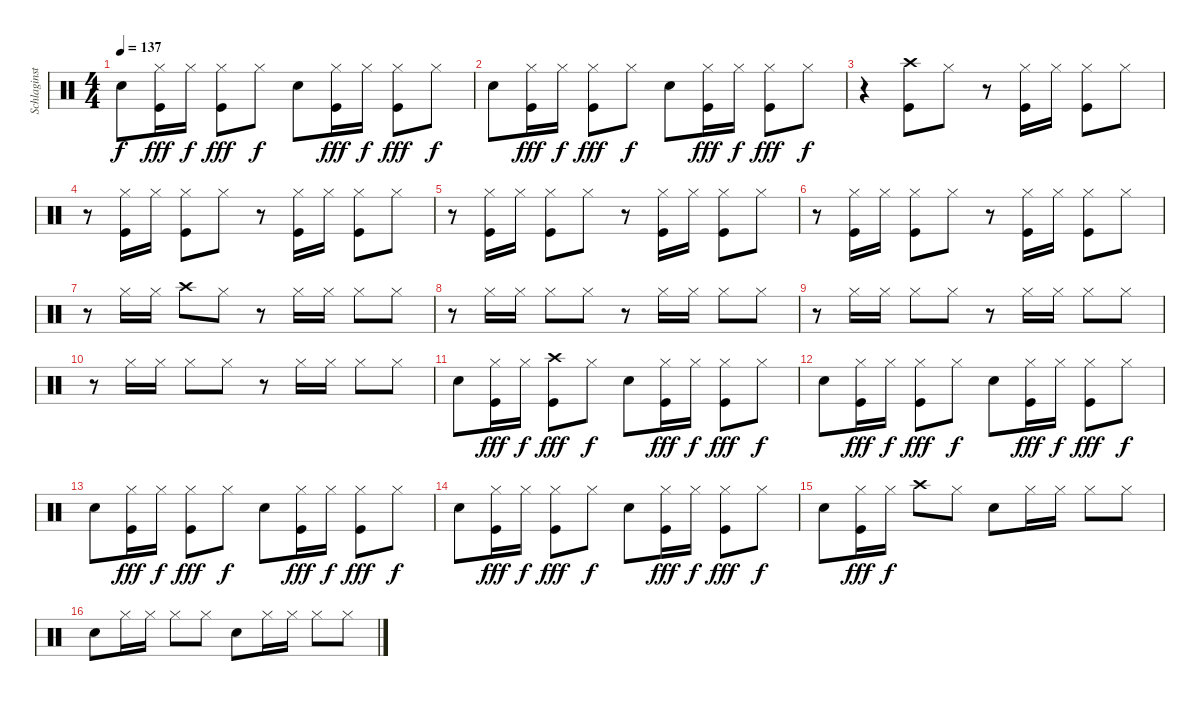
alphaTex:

\track ("Schlaginstrument" "Schlaginst") {instrument percussion}
\staff {score}
\articulation defaults
\ts (4 4)
\tempo 137
\clef neutral
\ks c "Hand Clap (hit)".8{dy f}
("Hi-Hat (closed)" "Kick (hit)").16{dy fff} "Hi-Hat (closed)".16{dy f} ("Hi-Hat (closed)" "Kick (hit)").8{dy fff} "Hi-Hat (closed)".8{dy f} "Hand Clap (hit)".8 ("Hi-Hat (closed)" "Kick (hit)").16{dy fff} "Hi-Hat (closed)".16{dy f} ("Hi-Hat (closed)" "Kick (hit)").8{dy fff} "Hi-Hat (closed)".8{dy f} |
"Hand Clap (hit)".8 ("Hi-Hat (closed)" "Kick (hit)").16{dy fff} "Hi-Hat (closed)".16{dy f} ("Hi-Hat (closed)" "Kick (hit)").8{dy fff} "Hi-Hat (closed)".8{dy f} "Hand Clap (hit)".8 ("Hi-Hat (closed)" "Kick (hit)").16{dy fff} "Hi-Hat (closed)".16{dy f} ("Hi-Hat (closed)" "Kick (hit)").8{dy fff} "Hi-Hat (closed)".8{dy f} |
r.4 ("Crash high (hit)" "Kick (hit)").8 "Hi-Hat (closed)".8 r.8 ("Hi-Hat (closed)" "Kick (hit)").16 "Hi-Hat (closed)".16 ("Hi-Hat (closed)" "Kick (hit)").8 "Hi-Hat (closed)".8 |
r.8 ("Hi-Hat (closed)" "Kick (hit)").16 "Hi-Hat (closed)".16 ("Hi-Hat (closed)" "Kick (hit)").8 "Hi-Hat (closed)".8 r.8 ("Hi-Hat (closed)" "Kick (hit)").16 "Hi-Hat (closed)".16 ("Hi-Hat (closed)" "Kick (hit)").8 "Hi-Hat (closed)".8 |
r.8 ("Hi-Hat (closed)" "Kick (hit)").16 "Hi-Hat (closed)".16 ("Hi-Hat (closed)" "Kick (hit)").8 "Hi-Hat (closed)".8 r.8 ("Hi-Hat (closed)" "Kick (hit)").16 "Hi-Hat (closed)".16 ("Hi-Hat (closed)" "Kick (hit)").8 "Hi-Hat (closed)".8 |
r.8 ("Hi-Hat (closed)" "Kick (hit)").16 "Hi-Hat (closed)".16 ("Hi-Hat (closed)" "Kick (hit)").8 "Hi-Hat (closed)".8 r.8 ("Hi-Hat (closed)" "Kick (hit)").16 "Hi-Hat (closed)".16 ("Hi-Hat (closed)" "Kick (hit)").8 "Hi-Hat (closed)".8 |
r.8 "Hi-Hat (closed)".16 "Hi-Hat (closed)".16 "Crash high (hit)".8 "Hi-Hat (closed)".8 r.8 "Hi-Hat (closed)".16 "Hi-Hat (closed)".16 "Hi-Hat (closed)".8 "Hi-Hat (closed)".8 |
r.8 "Hi-Hat (closed)".16 "Hi-Hat (closed)".16 "Hi-Hat (closed)".8 "Hi-Hat (closed)".8 r.8 "Hi-Hat (closed)".16 "Hi-Hat (closed)".16 "Hi-Hat (closed)".8 "Hi-Hat (closed)".8 |
r.8 "Hi-Hat (closed)".16 "Hi-Hat (closed)".16 "Hi-Hat (closed)".8 "Hi-Hat (closed)".8 r.8 "Hi-Hat (closed)".16 "Hi-Hat (closed)".16 "Hi-Hat (closed)".8 "Hi-Hat (closed)".8 |
r.8 "Hi-Hat (closed)".16 "Hi-Hat (closed)".16 "Hi-Hat (closed)".8 "Hi-Hat (closed)".8 r.8 "Hi-Hat (closed)".16 "Hi-Hat (closed)".16 "Hi-Hat (closed)".8 "Hi-Hat (closed)".8 |
"Hand Clap (hit)".8 ("Hi-Hat (closed)" "Kick (hit)").16{dy fff} "Hi-Hat (closed)".16{dy f} ("Crash high (hit)" "Kick (hit)").8{dy fff} "Hi-Hat (closed)".8{dy f} "Hand Clap (hit)".8 ("Hi-Hat (closed)" "Kick (hit)").16{dy fff} "Hi-Hat (closed)".16{dy f} ("Hi-Hat (closed)" "Kick (hit)").8{dy fff} "Hi-Hat (closed)".8{dy f} |
"Hand Clap (hit)".8 ("Hi-Hat (closed)" "Kick (hit)").16{dy fff} "Hi-Hat (closed)".16{dy f} ("Hi-Hat (closed)" "Kick (hit)").8{dy fff} "Hi-Hat (closed)".8{dy f} "Hand Clap (hit)".8 ("Hi-Hat (closed)" "Kick (hit)").16{dy fff} "Hi-Hat (closed)".16{dy f} ("Hi-Hat (closed)" "Kick (hit)").8{dy fff} "Hi-Hat (closed)".8{dy f} |
"Hand Clap (hit)".8 ("Hi-Hat (closed)" "Kick (hit)").16{dy fff} "Hi-Hat (closed)".16{dy f} ("Hi-Hat (closed)" "Kick (hit)").8{dy fff} "Hi-Hat (closed)".8{dy f} "Hand Clap (hit)".8 ("Hi-Hat (closed)" "Kick (hit)").16{dy fff} "Hi-Hat (closed)".16{dy f} ("Hi-Hat (closed)" "Kick (hit)").8{dy fff} "Hi-Hat (closed)".8{dy f} |
"Hand Clap (hit)".8 ("Hi-Hat (closed)" "Kick (hit)").16{dy fff} "Hi-Hat (closed)".16{dy f} ("Hi-Hat (closed)" "Kick (hit)").8{dy fff} "Hi-Hat (closed)".8{dy f} "Hand Clap (hit)".8 ("Hi-Hat (closed)" "Kick (hit)").16{dy fff} "Hi-Hat (closed)".16{dy f} ("Hi-Hat (closed)" "Kick (hit)").8{dy fff} "Hi-Hat (closed)".8{dy f} |
"Hand Clap (hit)".8 ("Hi-Hat (closed)" "Kick (hit)").16{dy fff} "Hi-Hat (closed)".16{dy f} "Crash high (hit)".8 "Hi-Hat (closed)".8 "Hand Clap (hit)".8 "Hi-Hat (closed)".16 "Hi-Hat (closed)".16 "Hi-Hat (closed)".8 "Hi-Hat (closed)".8 |
"Hand Clap (hit)".8 "Hi-Hat (closed)".16 "Hi-Hat (closed)".16 "Hi-Hat (closed)".8 "Hi-Hat (closed)".8 "Hand Clap (hit)".8 "Hi-Hat (closed)".16 "Hi-Hat (closed)".16 "Hi-Hat (closed)".8 "Hi-Hat (closed)".8
